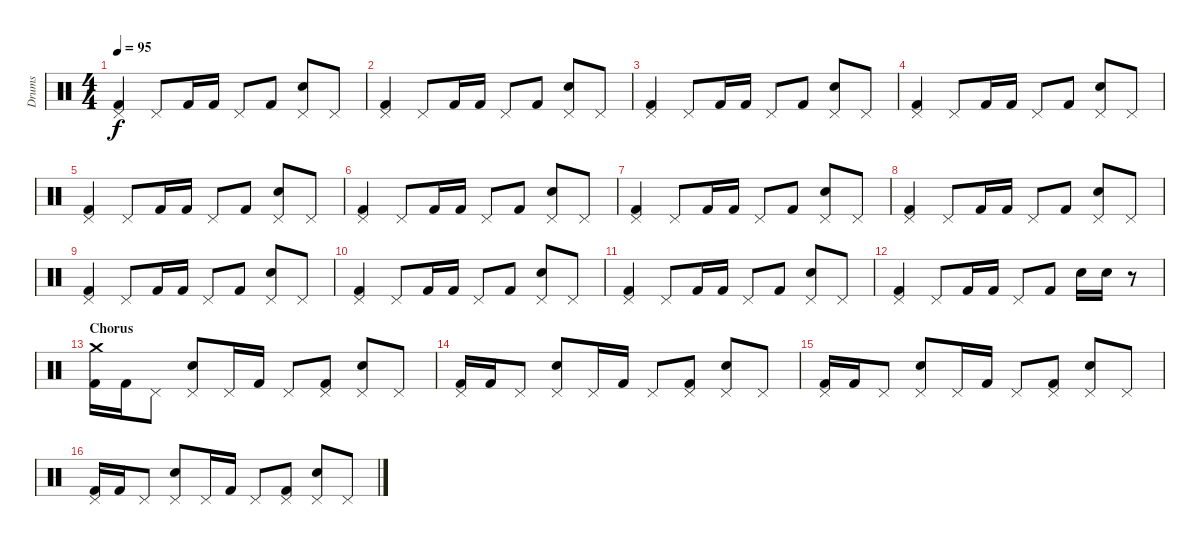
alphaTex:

\track ("Drums" "Drums") {instrument percussion}
\staff {score}
\articulation defaults
\ts (4 4)
\tempo 95
\clef neutral
\ks c
("Pedal Hi-Hat (hit)" "Kick (hit) 2").4{dy f} "Pedal Hi-Hat (hit)".8 "Kick (hit) 2".16 "Kick (hit) 2".16 "Pedal Hi-Hat (hit)".8 "Kick (hit) 2".8 ("Pedal Hi-Hat (hit)" "Electric Snare (hit)").8 "Pedal Hi-Hat (hit)".8 |
("Pedal Hi-Hat (hit)" "Kick (hit) 2").4 "Pedal Hi-Hat (hit)".8 "Kick (hit) 2".16 "Kick (hit) 2".16 "Pedal Hi-Hat (hit)".8 "Kick (hit) 2".8 ("Pedal Hi-Hat (hit)" "Electric Snare (hit)").8 "Pedal Hi-Hat (hit)".8 |
("Pedal Hi-Hat (hit)" "Kick (hit) 2").4 "Pedal Hi-Hat (hit)".8 "Kick (hit) 2".16 "Kick (hit) 2".16 "Pedal Hi-Hat (hit)".8 "Kick (hit) 2".8 ("Pedal Hi-Hat (hit)" "Electric Snare (hit)").8 "Pedal Hi-Hat (hit)".8 |
("Pedal Hi-Hat (hit)" "Kick (hit) 2").4 "Pedal Hi-Hat (hit)".8 "Kick (hit) 2".16 "Kick (hit) 2".16 "Pedal Hi-Hat (hit)".8 "Kick (hit) 2".8 ("Pedal Hi-Hat (hit)" "Electric Snare (hit)").8 "Pedal Hi-Hat (hit)".8 |
("Pedal Hi-Hat (hit)" "Kick (hit) 2").4 "Pedal Hi-Hat (hit)".8 "Kick (hit) 2".16 "Kick (hit) 2".16 "Pedal Hi-Hat (hit)".8 "Kick (hit) 2".8 ("Pedal Hi-Hat (hit)" "Electric Snare (hit)").8 "Pedal Hi-Hat (hit)".8 |
("Pedal Hi-Hat (hit)" "Kick (hit) 2").4 "Pedal Hi-Hat (hit)".8 "Kick (hit) 2".16 "Kick (hit) 2".16 "Pedal Hi-Hat (hit)".8 "Kick (hit) 2".8 ("Pedal Hi-Hat (hit)" "Electric Snare (hit)").8 "Pedal Hi-Hat (hit)".8 |
("Pedal Hi-Hat (hit)" "Kick (hit) 2").4 "Pedal Hi-Hat (hit)".8 "Kick (hit) 2".16 "Kick (hit) 2".16 "Pedal Hi-Hat (hit)".8 "Kick (hit) 2".8 ("Pedal Hi-Hat (hit)" "Electric Snare (hit)").8 "Pedal Hi-Hat (hit)".8 |
("Pedal Hi-Hat (hit)" "Kick (hit) 2").4 "Pedal Hi-Hat (hit)".8 "Kick (hit) 2".16 "Kick (hit) 2".16 "Pedal Hi-Hat (hit)".8 "Kick (hit) 2".8 ("Pedal Hi-Hat (hit)" "Electric Snare (hit)").8 "Pedal Hi-Hat (hit)".8 |
("Pedal Hi-Hat (hit)" "Kick (hit) 2").4 "Pedal Hi-Hat (hit)".8 "Kick (hit) 2".16 "Kick (hit) 2".16 "Pedal Hi-Hat (hit)".8 "Kick (hit) 2".8 ("Pedal Hi-Hat (hit)" "Electric Snare (hit)").8 "Pedal Hi-Hat (hit)".8 |
("Pedal Hi-Hat (hit)" "Kick (hit) 2").4 "Pedal Hi-Hat (hit)".8 "Kick (hit) 2".16 "Kick (hit) 2".16 "Pedal Hi-Hat (hit)".8 "Kick (hit) 2".8 ("Pedal Hi-Hat (hit)" "Electric Snare (hit)").8 "Pedal Hi-Hat (hit)".8 |
("Pedal Hi-Hat (hit)" "Kick (hit) 2").4 "Pedal Hi-Hat (hit)".8 "Kick (hit) 2".16 "Kick (hit) 2".16 "Pedal Hi-Hat (hit)".8 "Kick (hit) 2".8 ("Pedal Hi-Hat (hit)" "Electric Snare (hit)").8 "Pedal Hi-Hat (hit)".8 |
("Pedal Hi-Hat (hit)" "Kick (hit) 2").4 "Pedal Hi-Hat (hit)".8 "Kick (hit) 2".16 "Kick (hit) 2".16 "Pedal Hi-Hat (hit)".8 "Kick (hit) 2".8 "Electric Snare (hit)".16 "Electric Snare (hit)".16 r.8 |
\section ("" "Chorus")
("Crash medium (hit)" "Kick (hit) 2").16 "Kick (hit) 2".16 "Pedal Hi-Hat (hit)".8 ("Pedal Hi-Hat (hit)" "Electric Snare (hit)").8 "Pedal Hi-Hat (hit)".16 "Kick (hit) 2".16 "Pedal Hi-Hat (hit)".8 ("Pedal Hi-Hat (hit)" "Kick (hit) 2").8 ("Pedal Hi-Hat (hit)" "Electric Snare (hit)").8 "Pedal Hi-Hat (hit)".8 |
("Pedal Hi-Hat (hit)" "Kick (hit) 2").16 "Kick (hit) 2".16 "Pedal Hi-Hat (hit)".8 ("Pedal Hi-Hat (hit)" "Electric Snare (hit)").8 "Pedal Hi-Hat (hit)".16 "Kick (hit) 2".16 "Pedal Hi-Hat (hit)".8 ("Pedal Hi-Hat (hit)" "Kick (hit) 2").8 ("Pedal Hi-Hat (hit)" "Electric Snare (hit)").8 "Pedal Hi-Hat (hit)".8 |
("Pedal Hi-Hat (hit)" "Kick (hit) 2").16 "Kick (hit) 2".16 "Pedal Hi-Hat (hit)".8 ("Pedal Hi-Hat (hit)" "Electric Snare (hit)").8 "Pedal Hi-Hat (hit)".16 "Kick (hit) 2".16 "Pedal Hi-Hat (hit)".8 ("Pedal Hi-Hat (hit)" "Kick (hit) 2").8 ("Pedal Hi-Hat (hit)" "Electric Snare (hit)").8 "Pedal Hi-Hat (hit)".8 |
("Pedal Hi-Hat (hit)" "Kick (hit) 2").16 "Kick (hit) 2".16 "Pedal Hi-Hat (hit)".8 ("Pedal Hi-Hat (hit)" "Electric Snare (hit)").8 "Pedal Hi-Hat (hit)".16 "Kick (hit) 2".16 "Pedal Hi-Hat (hit)".8 ("Pedal Hi-Hat (hit)" "Kick (hit) 2").8 ("Pedal Hi-Hat (hit)" "Electric Snare (hit)").8 "Pedal Hi-Hat (hit)".8
